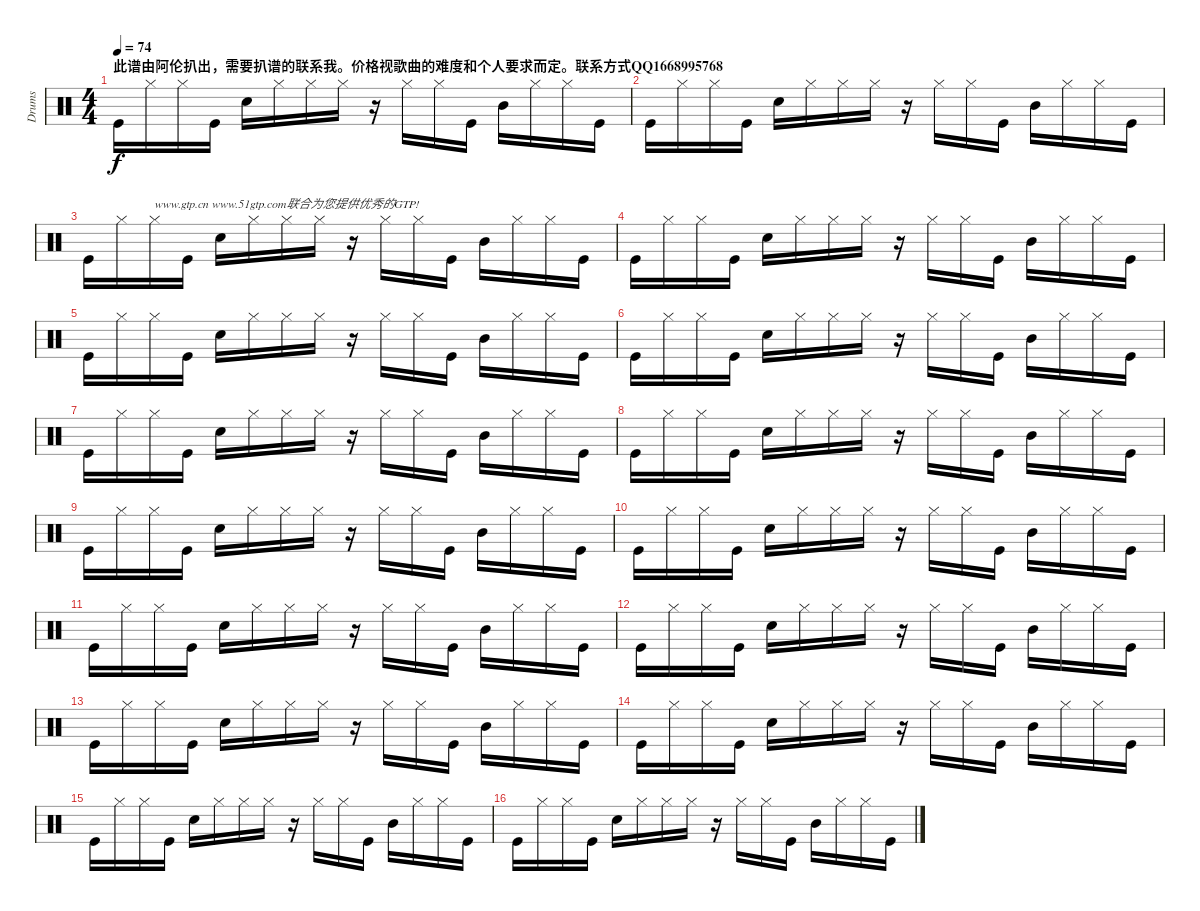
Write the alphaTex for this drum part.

\track ("Drums" "Drums") {instrument percussion}
\staff {score}
\articulation defaults
\ts (4 4)
\section ("" "此谱由阿伦扒出，需要扒谱的联系我。价格视歌曲的难度和个人要求而定。联系方式QQ1668995768")
\tempo 74
\clef neutral
\ks c "Kick (hit)".16{dy f} "Hi-Hat (closed)".16 "Hi-Hat (closed)".16 "Kick (hit)".16 "Snare (hit) 2".16 "Hi-Hat (closed)".16 "Hi-Hat (closed)".16 "Hi-Hat (closed)".16
r.16 "Hi-Hat (closed)".16 "Hi-Hat (closed)".16 "Kick (hit)".16 "Mid Tom (hit)".16 "Hi-Hat (closed)".16 "Hi-Hat (closed)".16 "Kick (hit)".16 |
"Kick (hit)".16 "Hi-Hat (closed)".16 "Hi-Hat (closed)".16 "Kick (hit)".16 "Snare (hit) 2".16 "Hi-Hat (closed)".16 "Hi-Hat (closed)".16 "Hi-Hat (closed)".16 r.16 "Hi-Hat (closed)".16 "Hi-Hat (closed)".16 "Kick (hit)".16 "Mid Tom (hit)".16 "Hi-Hat (closed)".16 "Hi-Hat (closed)".16 "Kick (hit)".16 |
"Kick (hit)".16 "Hi-Hat (closed)".16 "Hi-Hat (closed)".16{txt "www.gtp.cn www.51gtp.com联合为您提供优秀的GTP!"} "Kick (hit)".16 "Snare (hit) 2".16 "Hi-Hat (closed)".16 "Hi-Hat (closed)".16 "Hi-Hat (closed)".16 r.16 "Hi-Hat (closed)".16 "Hi-Hat (closed)".16 "Kick (hit)".16 "Mid Tom (hit)".16 "Hi-Hat (closed)".16 "Hi-Hat (closed)".16 "Kick (hit)".16 |
"Kick (hit)".16 "Hi-Hat (closed)".16 "Hi-Hat (closed)".16 "Kick (hit)".16 "Snare (hit) 2".16 "Hi-Hat (closed)".16 "Hi-Hat (closed)".16 "Hi-Hat (closed)".16 r.16 "Hi-Hat (closed)".16 "Hi-Hat (closed)".16 "Kick (hit)".16 "Mid Tom (hit)".16 "Hi-Hat (closed)".16 "Hi-Hat (closed)".16 "Kick (hit)".16 |
"Kick (hit)".16 "Hi-Hat (closed)".16 "Hi-Hat (closed)".16 "Kick (hit)".16 "Snare (hit) 2".16 "Hi-Hat (closed)".16 "Hi-Hat (closed)".16 "Hi-Hat (closed)".16 r.16 "Hi-Hat (closed)".16 "Hi-Hat (closed)".16 "Kick (hit)".16 "Mid Tom (hit)".16 "Hi-Hat (closed)".16 "Hi-Hat (closed)".16 "Kick (hit)".16 |
"Kick (hit)".16 "Hi-Hat (closed)".16 "Hi-Hat (closed)".16 "Kick (hit)".16 "Snare (hit) 2".16 "Hi-Hat (closed)".16 "Hi-Hat (closed)".16 "Hi-Hat (closed)".16 r.16 "Hi-Hat (closed)".16 "Hi-Hat (closed)".16 "Kick (hit)".16 "Mid Tom (hit)".16 "Hi-Hat (closed)".16 "Hi-Hat (closed)".16 "Kick (hit)".16 |
"Kick (hit)".16 "Hi-Hat (closed)".16 "Hi-Hat (closed)".16 "Kick (hit)".16 "Snare (hit) 2".16 "Hi-Hat (closed)".16 "Hi-Hat (closed)".16 "Hi-Hat (closed)".16 r.16 "Hi-Hat (closed)".16 "Hi-Hat (closed)".16 "Kick (hit)".16 "Mid Tom (hit)".16 "Hi-Hat (closed)".16 "Hi-Hat (closed)".16 "Kick (hit)".16 |
"Kick (hit)".16 "Hi-Hat (closed)".16 "Hi-Hat (closed)".16 "Kick (hit)".16 "Snare (hit) 2".16 "Hi-Hat (closed)".16 "Hi-Hat (closed)".16 "Hi-Hat (closed)".16 r.16 "Hi-Hat (closed)".16 "Hi-Hat (closed)".16 "Kick (hit)".16 "Mid Tom (hit)".16 "Hi-Hat (closed)".16 "Hi-Hat (closed)".16 "Kick (hit)".16 |
"Kick (hit)".16 "Hi-Hat (closed)".16 "Hi-Hat (closed)".16 "Kick (hit)".16 "Snare (hit) 2".16 "Hi-Hat (closed)".16 "Hi-Hat (closed)".16 "Hi-Hat (closed)".16 r.16 "Hi-Hat (closed)".16 "Hi-Hat (closed)".16 "Kick (hit)".16 "Mid Tom (hit)".16 "Hi-Hat (closed)".16 "Hi-Hat (closed)".16 "Kick (hit)".16 |
"Kick (hit)".16 "Hi-Hat (closed)".16 "Hi-Hat (closed)".16 "Kick (hit)".16 "Snare (hit) 2".16 "Hi-Hat (closed)".16 "Hi-Hat (closed)".16 "Hi-Hat (closed)".16 r.16 "Hi-Hat (closed)".16 "Hi-Hat (closed)".16 "Kick (hit)".16 "Mid Tom (hit)".16 "Hi-Hat (closed)".16 "Hi-Hat (closed)".16 "Kick (hit)".16 |
"Kick (hit)".16 "Hi-Hat (closed)".16 "Hi-Hat (closed)".16 "Kick (hit)".16 "Snare (hit) 2".16 "Hi-Hat (closed)".16 "Hi-Hat (closed)".16 "Hi-Hat (closed)".16 r.16 "Hi-Hat (closed)".16 "Hi-Hat (closed)".16 "Kick (hit)".16 "Mid Tom (hit)".16 "Hi-Hat (closed)".16 "Hi-Hat (closed)".16 "Kick (hit)".16 |
"Kick (hit)".16 "Hi-Hat (closed)".16 "Hi-Hat (closed)".16 "Kick (hit)".16 "Snare (hit) 2".16 "Hi-Hat (closed)".16 "Hi-Hat (closed)".16 "Hi-Hat (closed)".16 r.16 "Hi-Hat (closed)".16 "Hi-Hat (closed)".16 "Kick (hit)".16 "Mid Tom (hit)".16 "Hi-Hat (closed)".16 "Hi-Hat (closed)".16 "Kick (hit)".16 |
"Kick (hit)".16 "Hi-Hat (closed)".16 "Hi-Hat (closed)".16 "Kick (hit)".16 "Snare (hit) 2".16 "Hi-Hat (closed)".16 "Hi-Hat (closed)".16 "Hi-Hat (closed)".16 r.16 "Hi-Hat (closed)".16 "Hi-Hat (closed)".16 "Kick (hit)".16 "Mid Tom (hit)".16 "Hi-Hat (closed)".16 "Hi-Hat (closed)".16 "Kick (hit)".16 |
"Kick (hit)".16 "Hi-Hat (closed)".16 "Hi-Hat (closed)".16 "Kick (hit)".16 "Snare (hit) 2".16 "Hi-Hat (closed)".16 "Hi-Hat (closed)".16 "Hi-Hat (closed)".16 r.16 "Hi-Hat (closed)".16 "Hi-Hat (closed)".16 "Kick (hit)".16 "Mid Tom (hit)".16 "Hi-Hat (closed)".16 "Hi-Hat (closed)".16 "Kick (hit)".16 |
"Kick (hit)".16 "Hi-Hat (closed)".16 "Hi-Hat (closed)".16 "Kick (hit)".16 "Snare (hit) 2".16 "Hi-Hat (closed)".16 "Hi-Hat (closed)".16 "Hi-Hat (closed)".16 r.16 "Hi-Hat (closed)".16 "Hi-Hat (closed)".16 "Kick (hit)".16 "Mid Tom (hit)".16 "Hi-Hat (closed)".16 "Hi-Hat (closed)".16 "Kick (hit)".16 |
"Kick (hit)".16 "Hi-Hat (closed)".16 "Hi-Hat (closed)".16 "Kick (hit)".16 "Snare (hit) 2".16 "Hi-Hat (closed)".16 "Hi-Hat (closed)".16 "Hi-Hat (closed)".16 r.16 "Hi-Hat (closed)".16 "Hi-Hat (closed)".16 "Kick (hit)".16 "Mid Tom (hit)".16 "Hi-Hat (closed)".16 "Hi-Hat (closed)".16 "Kick (hit)".16
